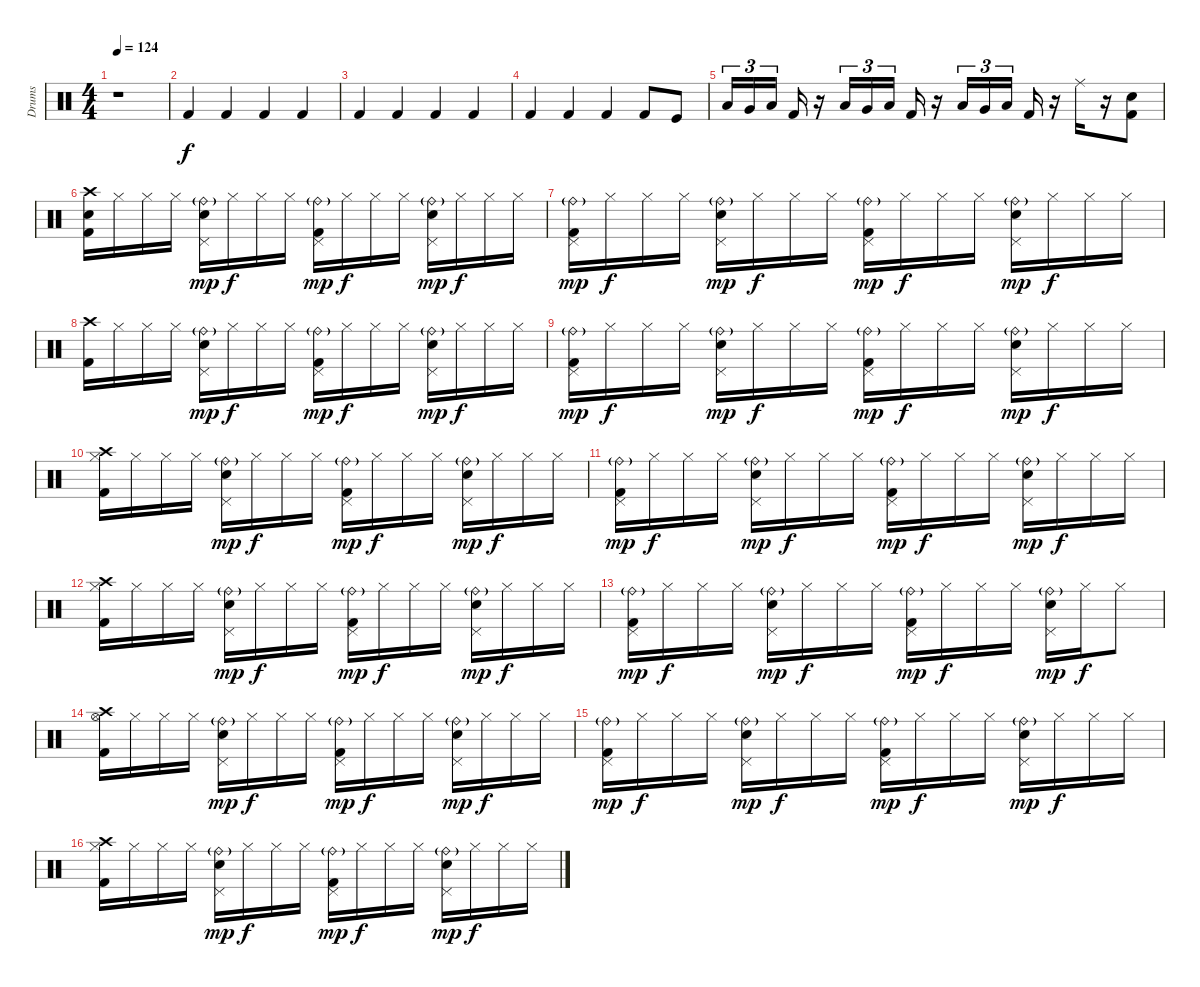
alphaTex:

\track ("Drums" "Drums") {instrument percussion}
\staff {score}
\articulation defaults
\ts (4 4)
\tempo 124
\clef neutral
\ks c
r.1{dy f} |
"Kick (hit) 2".4 "Kick (hit) 2".4 "Kick (hit) 2".4 "Kick (hit) 2".4 |
"Kick (hit) 2".4 "Kick (hit) 2".4 "Kick (hit) 2".4 "Kick (hit) 2".4 |
"Kick (hit) 2".4 "Kick (hit) 2".4 "Kick (hit) 2".4 "Kick (hit) 2".8 "Kick (hit)".8 |
"Low Tom (hit)".16{tu (3 2)} "Very Low Tom (hit)".16{tu (3 2)} "Low Floor Tom (hit)".16{tu (3 2) beam splitsecondary} "Kick (hit) 2".16 r.16 "Low Tom (hit)".16{tu (3 2)} "Very Low Tom (hit)".16{tu (3 2)} "Low Floor Tom (hit)".16{tu (3 2) beam splitsecondary} "Kick (hit) 2".16 r.16 "Low Tom (hit)".16{tu (3 2)} "Very Low Tom (hit)".16{tu (3 2)} "Low Floor Tom (hit)".16{tu (3 2) beam splitsecondary} "Kick (hit) 2".16 r.16 "Ride (middle)".16 r.16 ("Snare (hit) 2" "Kick (hit) 2").8 |
("Electric Snare (hit)" "Crash high (hit)" "Kick (hit) 2").16 "Hi-Hat (closed)".16 "Hi-Hat (closed)".16 "Hi-Hat (closed)".16 ("Ride (bell)"{g} "Pedal Hi-Hat (hit)" "Snare (hit) 2").16{dy mp} "Hi-Hat (closed)".16{dy f} "Hi-Hat (closed)".16 "Hi-Hat (closed)".16 ("Ride (bell)"{g} "Pedal Hi-Hat (hit)" "Kick (hit) 2").16{dy mp} "Hi-Hat (closed)".16{dy f} "Hi-Hat (closed)".16 "Hi-Hat (closed)".16 ("Ride (bell)"{g} "Pedal Hi-Hat (hit)" "Snare (hit) 2").16{dy mp} "Hi-Hat (closed)".16{dy f} "Hi-Hat (closed)".16 "Hi-Hat (closed)".16 |
("Ride (bell)"{g} "Pedal Hi-Hat (hit)" "Kick (hit) 2").16{dy mp} "Hi-Hat (closed)".16{dy f} "Hi-Hat (closed)".16 "Hi-Hat (closed)".16 ("Ride (bell)"{g} "Pedal Hi-Hat (hit)" "Snare (hit) 2").16{dy mp} "Hi-Hat (closed)".16{dy f} "Hi-Hat (closed)".16 "Hi-Hat (closed)".16 ("Ride (bell)"{g} "Pedal Hi-Hat (hit)" "Kick (hit) 2").16{dy mp} "Hi-Hat (closed)".16{dy f} "Hi-Hat (closed)".16 "Hi-Hat (closed)".16 ("Ride (bell)"{g} "Pedal Hi-Hat (hit)" "Snare (hit) 2").16{dy mp} "Hi-Hat (closed)".16{dy f} "Hi-Hat (closed)".16 "Hi-Hat (closed)".16 |
("Crash high (hit)" "Kick (hit) 2").16 "Hi-Hat (closed)".16 "Hi-Hat (closed)".16 "Hi-Hat (closed)".16 ("Ride (bell)"{g} "Pedal Hi-Hat (hit)" "Snare (hit) 2").16{dy mp} "Hi-Hat (closed)".16{dy f} "Hi-Hat (closed)".16 "Hi-Hat (closed)".16 ("Ride (bell)"{g} "Pedal Hi-Hat (hit)" "Kick (hit) 2").16{dy mp} "Hi-Hat (closed)".16{dy f} "Hi-Hat (closed)".16 "Hi-Hat (closed)".16 ("Ride (bell)"{g} "Pedal Hi-Hat (hit)" "Snare (hit) 2").16{dy mp} "Hi-Hat (closed)".16{dy f} "Hi-Hat (closed)".16 "Hi-Hat (closed)".16 |
("Ride (bell)"{g} "Pedal Hi-Hat (hit)" "Kick (hit) 2").16{dy mp} "Hi-Hat (closed)".16{dy f} "Hi-Hat (closed)".16 "Hi-Hat (closed)".16 ("Ride (bell)"{g} "Pedal Hi-Hat (hit)" "Snare (hit) 2").16{dy mp} "Hi-Hat (closed)".16{dy f} "Hi-Hat (closed)".16 "Hi-Hat (closed)".16 ("Ride (bell)"{g} "Pedal Hi-Hat (hit)" "Kick (hit) 2").16{dy mp} "Hi-Hat (closed)".16{dy f} "Hi-Hat (closed)".16 "Hi-Hat (closed)".16 ("Ride (bell)"{g} "Pedal Hi-Hat (hit)" "Snare (hit) 2").16{dy mp} "Hi-Hat (closed)".16{dy f} "Hi-Hat (closed)".16 "Hi-Hat (closed)".16 |
("Crash high (hit)" "Hi-Hat (closed)" "Kick (hit) 2").16 "Hi-Hat (closed)".16 "Hi-Hat (closed)".16 "Hi-Hat (closed)".16 ("Ride (bell)"{g} "Pedal Hi-Hat (hit)" "Snare (hit) 2").16{dy mp} "Hi-Hat (closed)".16{dy f} "Hi-Hat (closed)".16 "Hi-Hat (closed)".16 ("Ride (bell)"{g} "Pedal Hi-Hat (hit)" "Kick (hit) 2").16{dy mp} "Hi-Hat (closed)".16{dy f} "Hi-Hat (closed)".16 "Hi-Hat (closed)".16 ("Ride (bell)"{g} "Pedal Hi-Hat (hit)" "Snare (hit) 2").16{dy mp} "Hi-Hat (closed)".16{dy f} "Hi-Hat (closed)".16 "Hi-Hat (closed)".16 |
("Ride (bell)"{g} "Pedal Hi-Hat (hit)" "Kick (hit) 2").16{dy mp} "Hi-Hat (closed)".16{dy f} "Hi-Hat (closed)".16 "Hi-Hat (closed)".16 ("Ride (bell)"{g} "Pedal Hi-Hat (hit)" "Snare (hit) 2").16{dy mp} "Hi-Hat (closed)".16{dy f} "Hi-Hat (closed)".16 "Hi-Hat (closed)".16 ("Ride (bell)"{g} "Pedal Hi-Hat (hit)" "Kick (hit) 2").16{dy mp} "Hi-Hat (closed)".16{dy f} "Hi-Hat (closed)".16 "Hi-Hat (closed)".16 ("Ride (bell)"{g} "Pedal Hi-Hat (hit)" "Snare (hit) 2").16{dy mp} "Hi-Hat (closed)".16{dy f} "Hi-Hat (closed)".16 "Hi-Hat (closed)".16 |
("Crash high (hit)" "Hi-Hat (closed)" "Kick (hit) 2").16 "Hi-Hat (closed)".16 "Hi-Hat (closed)".16 "Hi-Hat (closed)".16 ("Ride (bell)"{g} "Pedal Hi-Hat (hit)" "Snare (hit) 2").16{dy mp} "Hi-Hat (closed)".16{dy f} "Hi-Hat (closed)".16 "Hi-Hat (closed)".16 ("Ride (bell)"{g} "Pedal Hi-Hat (hit)" "Kick (hit) 2").16{dy mp} "Hi-Hat (closed)".16{dy f} "Hi-Hat (closed)".16 "Hi-Hat (closed)".16 ("Ride (bell)"{g} "Pedal Hi-Hat (hit)" "Snare (hit) 2").16{dy mp} "Hi-Hat (closed)".16{dy f} "Hi-Hat (closed)".16 "Hi-Hat (closed)".16 |
("Ride (bell)"{g} "Pedal Hi-Hat (hit)" "Kick (hit) 2").16{dy mp} "Hi-Hat (closed)".16{dy f} "Hi-Hat (closed)".16 "Hi-Hat (closed)".16 ("Ride (bell)"{g} "Pedal Hi-Hat (hit)" "Snare (hit) 2").16{dy mp} "Hi-Hat (closed)".16{dy f} "Hi-Hat (closed)".16 "Hi-Hat (closed)".16 ("Ride (bell)"{g} "Pedal Hi-Hat (hit)" "Kick (hit) 2").16{dy mp} "Hi-Hat (closed)".16{dy f} "Hi-Hat (closed)".16 "Hi-Hat (closed)".16 ("Ride (bell)"{g} "Pedal Hi-Hat (hit)" "Snare (hit) 2").16{dy mp} "Hi-Hat (closed)".16{dy f} "Hi-Hat (closed)".8 |
("Crash high (hit)" "Hi-Hat (open)" "Kick (hit) 2").16 "Hi-Hat (closed)".16 "Hi-Hat (closed)".16 "Hi-Hat (closed)".16 ("Ride (bell)"{g} "Pedal Hi-Hat (hit)" "Snare (hit) 2").16{dy mp} "Hi-Hat (closed)".16{dy f} "Hi-Hat (closed)".16 "Hi-Hat (closed)".16 ("Ride (bell)"{g} "Pedal Hi-Hat (hit)" "Kick (hit) 2").16{dy mp} "Hi-Hat (closed)".16{dy f} "Hi-Hat (closed)".16 "Hi-Hat (closed)".16 ("Ride (bell)"{g} "Pedal Hi-Hat (hit)" "Snare (hit) 2").16{dy mp} "Hi-Hat (closed)".16{dy f} "Hi-Hat (closed)".16 "Hi-Hat (closed)".16 |
("Ride (bell)"{g} "Pedal Hi-Hat (hit)" "Kick (hit) 2").16{dy mp} "Hi-Hat (closed)".16{dy f} "Hi-Hat (closed)".16 "Hi-Hat (closed)".16 ("Ride (bell)"{g} "Pedal Hi-Hat (hit)" "Snare (hit) 2").16{dy mp} "Hi-Hat (closed)".16{dy f} "Hi-Hat (closed)".16 "Hi-Hat (closed)".16 ("Ride (bell)"{g} "Pedal Hi-Hat (hit)" "Kick (hit) 2").16{dy mp} "Hi-Hat (closed)".16{dy f} "Hi-Hat (closed)".16 "Hi-Hat (closed)".16 ("Ride (bell)"{g} "Pedal Hi-Hat (hit)" "Snare (hit) 2").16{dy mp} "Hi-Hat (closed)".16{dy f} "Hi-Hat (closed)".16 "Hi-Hat (closed)".16 |
("Crash high (hit)" "Hi-Hat (closed)" "Kick (hit) 2").16 "Hi-Hat (closed)".16 "Hi-Hat (closed)".16 "Hi-Hat (closed)".16 ("Ride (bell)"{g} "Pedal Hi-Hat (hit)" "Snare (hit) 2").16{dy mp} "Hi-Hat (closed)".16{dy f} "Hi-Hat (closed)".16 "Hi-Hat (closed)".16 ("Ride (bell)"{g} "Pedal Hi-Hat (hit)" "Kick (hit) 2").16{dy mp} "Hi-Hat (closed)".16{dy f} "Hi-Hat (closed)".16 "Hi-Hat (closed)".16 ("Ride (bell)"{g} "Pedal Hi-Hat (hit)" "Snare (hit) 2").16{dy mp} "Hi-Hat (closed)".16{dy f} "Hi-Hat (closed)".16 "Hi-Hat (closed)".16
